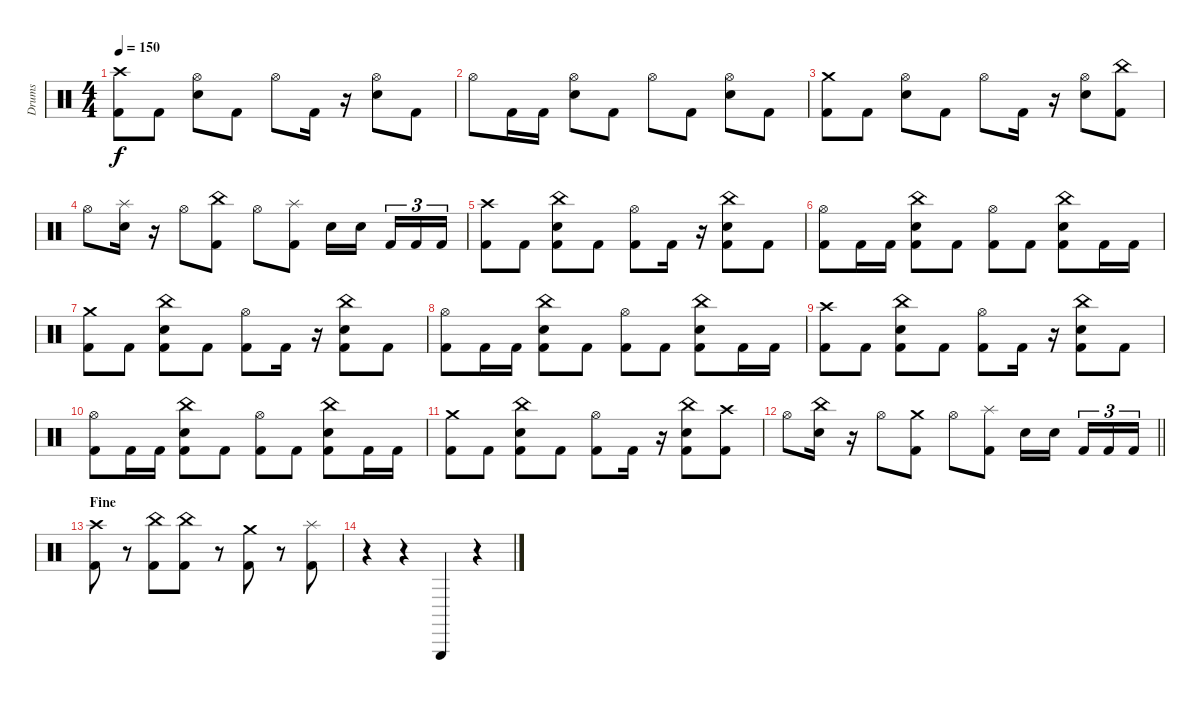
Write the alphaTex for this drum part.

\track ("Drums" "Drums") {instrument percussion}
\staff {score}
\articulation defaults
\ts (4 4)
\tempo 150
\clef neutral
\ks c
("Crash high (hit)" "Kick (hit) 2").8{dy f} "Kick (hit) 2".8 ("Hi-Hat (open)" "Snare (hit) 2").8 "Kick (hit) 2".8 "Hi-Hat (open)".8 "Kick (hit) 2".16 r.16 ("Hi-Hat (open)" "Snare (hit) 2").8 "Kick (hit) 2".8 |
"Hi-Hat (open)".8 "Kick (hit) 2".16 "Kick (hit) 2".16 ("Hi-Hat (open)" "Snare (hit) 2").8 "Kick (hit) 2".8 "Hi-Hat (open)".8 "Kick (hit) 2".8 ("Hi-Hat (open)" "Snare (hit) 2").8 "Kick (hit) 2".8 |
("Crash medium (hit)" "Kick (hit) 2").8 "Kick (hit) 2".8 ("Hi-Hat (open)" "Snare (hit) 2").8 "Kick (hit) 2".8 "Hi-Hat (open)".8 "Kick (hit) 2".16 r.16 ("Hi-Hat (open)" "Snare (hit) 2").8 ("China (hit)" "Kick (hit) 2").8 |
"Hi-Hat (open)".8 ("Splash (hit)" "Snare (hit) 2").16 r.16 "Hi-Hat (open)".8 ("China (hit)" "Kick (hit) 2").8 "Hi-Hat (open)".8 ("Splash (hit)" "Kick (hit) 2").8 "Snare (hit) 2".16 "Snare (hit) 2".16{beam splitsecondary} "Kick (hit) 2".16{tu (3 2)} "Kick (hit) 2".16{tu (3 2)} "Kick (hit) 2".16{tu (3 2)} |
("Crash high (hit)" "Kick (hit) 2").8 "Kick (hit) 2".8 ("China (hit)" "Snare (hit) 2" "Kick (hit) 2").8 "Kick (hit) 2".8 ("Hi-Hat (open)" "Kick (hit) 2").8 "Kick (hit) 2".16 r.16 ("China (hit)" "Snare (hit) 2" "Kick (hit) 2").8 "Kick (hit) 2".8 |
("Hi-Hat (open)" "Kick (hit) 2").8 "Kick (hit) 2".16 "Kick (hit) 2".16 ("China (hit)" "Snare (hit) 2" "Kick (hit) 2").8 "Kick (hit) 2".8 ("Hi-Hat (open)" "Kick (hit) 2").8 "Kick (hit) 2".8 ("China (hit)" "Snare (hit) 2" "Kick (hit) 2").8 "Kick (hit) 2".16 "Kick (hit) 2".16 |
("Crash medium (hit)" "Kick (hit) 2").8 "Kick (hit) 2".8 ("China (hit)" "Snare (hit) 2" "Kick (hit) 2").8 "Kick (hit) 2".8 ("Hi-Hat (open)" "Kick (hit) 2").8 "Kick (hit) 2".16 r.16 ("China (hit)" "Snare (hit) 2" "Kick (hit) 2").8 "Kick (hit) 2".8 |
("Hi-Hat (open)" "Kick (hit) 2").8 "Kick (hit) 2".16 "Kick (hit) 2".16 ("China (hit)" "Snare (hit) 2" "Kick (hit) 2").8 "Kick (hit) 2".8 ("Hi-Hat (open)" "Kick (hit) 2").8 "Kick (hit) 2".8 ("China (hit)" "Snare (hit) 2" "Kick (hit) 2").8 "Kick (hit) 2".16 "Kick (hit) 2".16 |
("Crash high (hit)" "Kick (hit) 2").8 "Kick (hit) 2".8 ("China (hit)" "Snare (hit) 2" "Kick (hit) 2").8 "Kick (hit) 2".8 ("Hi-Hat (open)" "Kick (hit) 2").8 "Kick (hit) 2".16 r.16 ("China (hit)" "Snare (hit) 2" "Kick (hit) 2").8 "Kick (hit) 2".8 |
("Hi-Hat (open)" "Kick (hit) 2").8 "Kick (hit) 2".16 "Kick (hit) 2".16 ("China (hit)" "Snare (hit) 2" "Kick (hit) 2").8 "Kick (hit) 2".8 ("Hi-Hat (open)" "Kick (hit) 2").8 "Kick (hit) 2".8 ("China (hit)" "Snare (hit) 2" "Kick (hit) 2").8 "Kick (hit) 2".16 "Kick (hit) 2".16 |
("Crash medium (hit)" "Kick (hit) 2").8 "Kick (hit) 2".8 ("China (hit)" "Snare (hit) 2" "Kick (hit) 2").8 "Kick (hit) 2".8 ("Hi-Hat (open)" "Kick (hit) 2").8 "Kick (hit) 2".16 r.16 ("China (hit)" "Snare (hit) 2" "Kick (hit) 2").8 ("Crash high (hit)" "Kick (hit) 2").8 |
\barLineRight lightlight "Hi-Hat (open)".8
("China (hit)" "Snare (hit) 2").16 r.16 "Hi-Hat (open)".8 ("Crash medium (hit)" "Kick (hit) 2").8 "Hi-Hat (open)".8 ("Splash (hit)" "Kick (hit) 2").8 "Snare (hit) 2".16 "Snare (hit) 2".16{beam splitsecondary} "Kick (hit) 2".16{tu (3 2)} "Kick (hit) 2".16{tu (3 2)} "Kick (hit) 2".16{tu (3 2)} |
\section ("" "Fine")
("Crash high (hit)" "Kick (hit) 2").8 r.8 ("China (hit)" "Kick (hit) 2").8 ("China (hit)" "Kick (hit) 2").8 r.8 ("Crash medium (hit)" "Kick (hit) 2").8 r.8 ("Splash (hit)" "Kick (hit) 2").8 |
r.4 r.4 "Triangle (hit)".4 r.4
